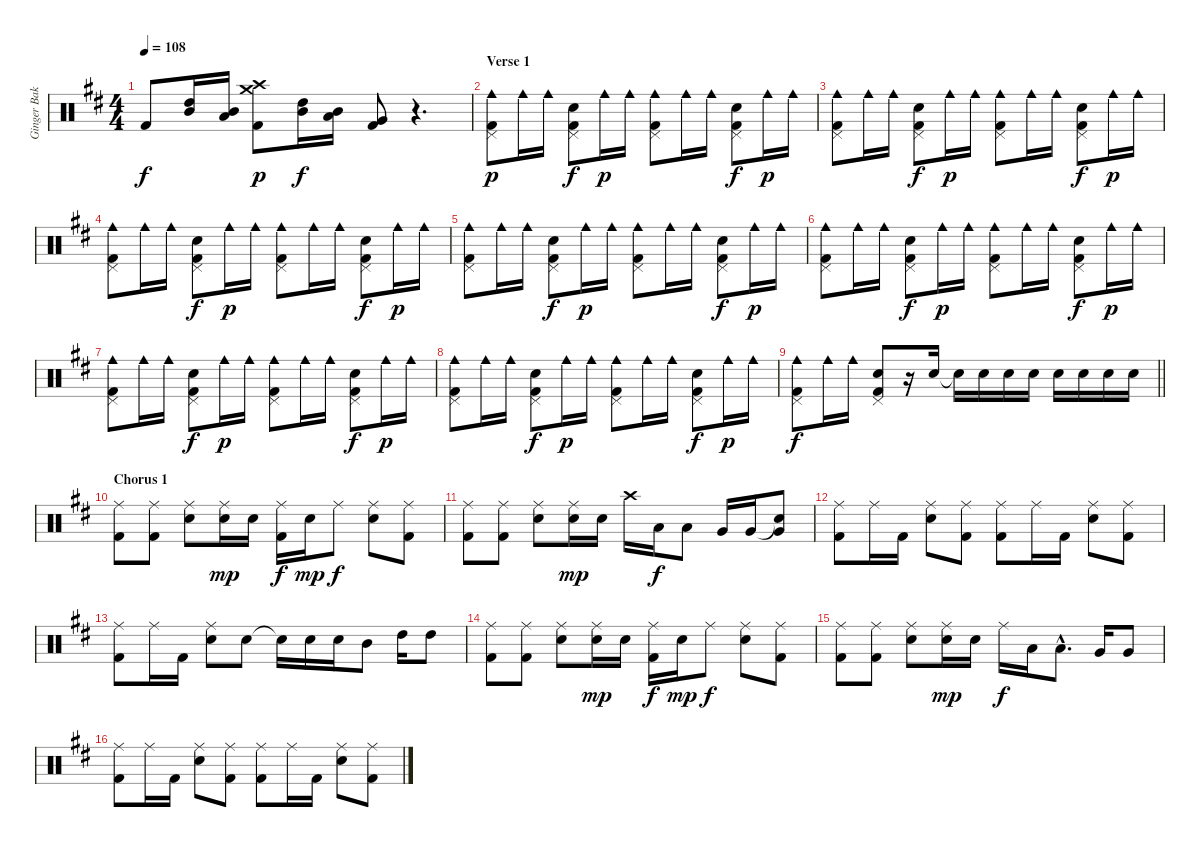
\track ("Ginger Baker (Drums)" "Ginger Bak") {instrument percussion}
\staff {score}
\articulation defaults
\ts (4 4)
\tempo 108
\clef neutral
\ks d "Kick (hit) 2".8{dy f}
("Mid Tom (hit)" "High Tom (hit)").16 ("Mid Tom (hit)" "Low Tom (hit)").16 ("Crash medium (hit)" "Crash high (hit)" "Kick (hit) 2").8{dy p} ("Mid Tom (hit)" "High Tom (hit)").16{dy f} ("Mid Tom (hit)" "Low Tom (hit)").16 ("Very Low Tom (hit)" "Kick (hit) 2").8 r.4{d} |
\section ("" "Verse 1")
("Pedal Hi-Hat (hit)" "Cowbell medium (hit)" "Kick (hit) 2").8{dy p} "Cowbell medium (hit)".16 "Cowbell medium (hit)".16 ("Pedal Hi-Hat (hit)" "Snare (hit) 2" "Kick (hit) 2").8{dy f} "Cowbell medium (hit)".16{dy p} "Cowbell medium (hit)".16 ("Pedal Hi-Hat (hit)" "Cowbell medium (hit)" "Kick (hit) 2").8 "Cowbell medium (hit)".16 "Cowbell medium (hit)".16 ("Pedal Hi-Hat (hit)" "Snare (hit) 2" "Kick (hit) 2").8{dy f} "Cowbell medium (hit)".16{dy p} "Cowbell medium (hit)".16 |
("Pedal Hi-Hat (hit)" "Cowbell medium (hit)" "Kick (hit) 2").8 "Cowbell medium (hit)".16 "Cowbell medium (hit)".16 ("Pedal Hi-Hat (hit)" "Snare (hit) 2" "Kick (hit) 2").8{dy f} "Cowbell medium (hit)".16{dy p} "Cowbell medium (hit)".16 ("Pedal Hi-Hat (hit)" "Cowbell medium (hit)" "Kick (hit) 2").8 "Cowbell medium (hit)".16 "Cowbell medium (hit)".16 ("Pedal Hi-Hat (hit)" "Snare (hit) 2" "Kick (hit) 2").8{dy f} "Cowbell medium (hit)".16{dy p} "Cowbell medium (hit)".16 |
("Pedal Hi-Hat (hit)" "Cowbell medium (hit)" "Kick (hit) 2").8 "Cowbell medium (hit)".16 "Cowbell medium (hit)".16 ("Pedal Hi-Hat (hit)" "Snare (hit) 2" "Kick (hit) 2").8{dy f} "Cowbell medium (hit)".16{dy p} "Cowbell medium (hit)".16 ("Pedal Hi-Hat (hit)" "Cowbell medium (hit)" "Kick (hit) 2").8 "Cowbell medium (hit)".16 "Cowbell medium (hit)".16 ("Pedal Hi-Hat (hit)" "Snare (hit) 2" "Kick (hit) 2").8{dy f} "Cowbell medium (hit)".16{dy p} "Cowbell medium (hit)".16 |
("Pedal Hi-Hat (hit)" "Cowbell medium (hit)" "Kick (hit) 2").8 "Cowbell medium (hit)".16 "Cowbell medium (hit)".16 ("Pedal Hi-Hat (hit)" "Snare (hit) 2" "Kick (hit) 2").8{dy f} "Cowbell medium (hit)".16{dy p} "Cowbell medium (hit)".16 ("Pedal Hi-Hat (hit)" "Cowbell medium (hit)" "Kick (hit) 2").8 "Cowbell medium (hit)".16 "Cowbell medium (hit)".16 ("Pedal Hi-Hat (hit)" "Snare (hit) 2" "Kick (hit) 2").8{dy f} "Cowbell medium (hit)".16{dy p} "Cowbell medium (hit)".16 |
("Pedal Hi-Hat (hit)" "Cowbell medium (hit)" "Kick (hit) 2").8 "Cowbell medium (hit)".16 "Cowbell medium (hit)".16 ("Pedal Hi-Hat (hit)" "Snare (hit) 2" "Kick (hit) 2").8{dy f} "Cowbell medium (hit)".16{dy p} "Cowbell medium (hit)".16 ("Pedal Hi-Hat (hit)" "Cowbell medium (hit)" "Kick (hit) 2").8 "Cowbell medium (hit)".16 "Cowbell medium (hit)".16 ("Pedal Hi-Hat (hit)" "Snare (hit) 2" "Kick (hit) 2").8{dy f} "Cowbell medium (hit)".16{dy p} "Cowbell medium (hit)".16 |
("Pedal Hi-Hat (hit)" "Cowbell medium (hit)" "Kick (hit) 2").8 "Cowbell medium (hit)".16 "Cowbell medium (hit)".16 ("Pedal Hi-Hat (hit)" "Snare (hit) 2" "Kick (hit) 2").8{dy f} "Cowbell medium (hit)".16{dy p} "Cowbell medium (hit)".16 ("Pedal Hi-Hat (hit)" "Cowbell medium (hit)" "Kick (hit) 2").8 "Cowbell medium (hit)".16 "Cowbell medium (hit)".16 ("Pedal Hi-Hat (hit)" "Snare (hit) 2" "Kick (hit) 2").8{dy f} "Cowbell medium (hit)".16{dy p} "Cowbell medium (hit)".16 |
("Pedal Hi-Hat (hit)" "Cowbell medium (hit)" "Kick (hit) 2").8 "Cowbell medium (hit)".16 "Cowbell medium (hit)".16 ("Pedal Hi-Hat (hit)" "Snare (hit) 2" "Kick (hit) 2").8{dy f} "Cowbell medium (hit)".16{dy p} "Cowbell medium (hit)".16 ("Pedal Hi-Hat (hit)" "Cowbell medium (hit)" "Kick (hit) 2").8 "Cowbell medium (hit)".16 "Cowbell medium (hit)".16 ("Pedal Hi-Hat (hit)" "Snare (hit) 2" "Kick (hit) 2").8{dy f} "Cowbell medium (hit)".16{dy p} "Cowbell medium (hit)".16 |
\barLineRight lightlight
("Pedal Hi-Hat (hit)" "Cowbell medium (hit)" "Kick (hit) 2").8{dy f} "Cowbell medium (hit)".16 "Cowbell medium (hit)".16 ("Pedal Hi-Hat (hit)" "Snare (hit) 2" "Kick (hit) 2").8 r.16 "Snare (hit) 2".16 "Snare (hit)"{t}.16 "Snare (hit) 2".16 "Snare (hit) 2".16 "Snare (hit) 2".16 "Snare (hit) 2".16 "Snare (hit) 2".16 "Snare (hit) 2".16 "Snare (hit) 2".16 |
\section ("" "Chorus 1")
("Ride (middle)" "Kick (hit) 2").8 ("Ride (middle)" "Kick (hit) 2").8 ("Ride (middle)" "Snare (hit) 2").8 ("Ride (middle)" "Snare (hit) 2").16{dy mp} "Snare (hit) 2".16 ("Ride (middle)" "Kick (hit) 2").16{dy f} "Snare (hit) 2".16{dy mp} "Ride (middle)".8{dy f} ("Ride (middle)" "Snare (hit) 2").8 ("Ride (middle)" "Kick (hit) 2").8 |
("Ride (middle)" "Kick (hit) 2").8 ("Ride (middle)" "Kick (hit) 2").8 ("Ride (middle)" "Snare (hit) 2").8 ("Ride (middle)" "Snare (hit) 2").16{dy mp} "Snare (hit) 2".16 "Crash high (hit)".16 "Low Tom (hit)".16{dy f} "Low Tom (hit)".8 "Very Low Tom (hit)".16 "Very Low Tom (hit)".16 ("Snare (hit)"{t} "Very Low Tom (hit)").8 |
("Ride (middle)" "Kick (hit) 2").8 "Ride (middle)".16 "Kick (hit) 2".16 ("Ride (middle)" "Snare (hit) 2").8 ("Ride (middle)" "Kick (hit) 2").8 ("Ride (middle)" "Kick (hit) 2").8 "Ride (middle)".16 "Kick (hit) 2".16 ("Ride (middle)" "Snare (hit) 2").8 ("Ride (middle)" "Kick (hit) 2").8 |
("Ride (middle)" "Kick (hit) 2").8 "Ride (middle)".16 "Kick (hit) 2".16 ("Ride (middle)" "Snare (hit) 2").8 "Snare (hit) 2".8 "Snare (hit)"{t}.16 "Snare (hit) 2".16 "Snare (hit) 2".16 "Mid Tom (hit)".8 "High Tom (hit)".16 "High Tom (hit)".8 |
("Ride (middle)" "Kick (hit) 2").8 ("Ride (middle)" "Kick (hit) 2").8 ("Ride (middle)" "Snare (hit) 2").8 ("Ride (middle)" "Snare (hit) 2").16{dy mp} "Snare (hit) 2".16 ("Ride (middle)" "Kick (hit) 2").16{dy f} "Snare (hit) 2".16{dy mp} "Ride (middle)".8{dy f} ("Ride (middle)" "Snare (hit) 2").8 ("Ride (middle)" "Kick (hit) 2").8 |
("Ride (middle)" "Kick (hit) 2").8 ("Ride (middle)" "Kick (hit) 2").8 ("Ride (middle)" "Snare (hit) 2").8 ("Ride (middle)" "Snare (hit) 2").16{dy mp} "Snare (hit) 2".16 "Ride (middle)".16{dy f} "Low Tom (hit)".16 "Low Tom (hit)"{hac}.8{d} "Very Low Tom (hit)".16 "Very Low Tom (hit)".8 |
("Ride (middle)" "Kick (hit) 2").8 "Ride (middle)".16 "Kick (hit) 2".16 ("Ride (middle)" "Snare (hit) 2").8 ("Ride (middle)" "Kick (hit) 2").8 ("Ride (middle)" "Kick (hit) 2").8 "Ride (middle)".16 "Kick (hit) 2".16 ("Ride (middle)" "Snare (hit) 2").8 ("Ride (middle)" "Kick (hit) 2").8
